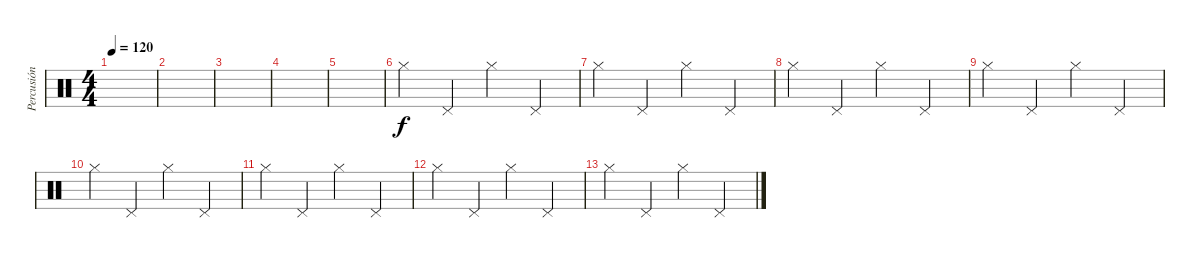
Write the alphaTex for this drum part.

\track ("Percusión" "Percusión") {instrument percussion}
\staff {score}
\articulation defaults
\ts (4 4)
\tempo 120
\clef neutral
\ks c
|
|
|
|
|
"Hi-Hat (closed)".4 "Pedal Hi-Hat (hit)".4 "Hi-Hat (closed)".4 "Pedal Hi-Hat (hit)".4 |
"Hi-Hat (closed)".4 "Pedal Hi-Hat (hit)".4 "Hi-Hat (closed)".4 "Pedal Hi-Hat (hit)".4 |
"Hi-Hat (closed)".4 "Pedal Hi-Hat (hit)".4 "Hi-Hat (closed)".4 "Pedal Hi-Hat (hit)".4 |
"Hi-Hat (closed)".4 "Pedal Hi-Hat (hit)".4 "Hi-Hat (closed)".4 "Pedal Hi-Hat (hit)".4 |
"Hi-Hat (closed)".4 "Pedal Hi-Hat (hit)".4 "Hi-Hat (closed)".4 "Pedal Hi-Hat (hit)".4 |
"Hi-Hat (closed)".4 "Pedal Hi-Hat (hit)".4 "Hi-Hat (closed)".4 "Pedal Hi-Hat (hit)".4 |
"Hi-Hat (closed)".4 "Pedal Hi-Hat (hit)".4 "Hi-Hat (closed)".4 "Pedal Hi-Hat (hit)".4 |
"Hi-Hat (closed)".4 "Pedal Hi-Hat (hit)".4 "Hi-Hat (closed)".4 "Pedal Hi-Hat (hit)".4
